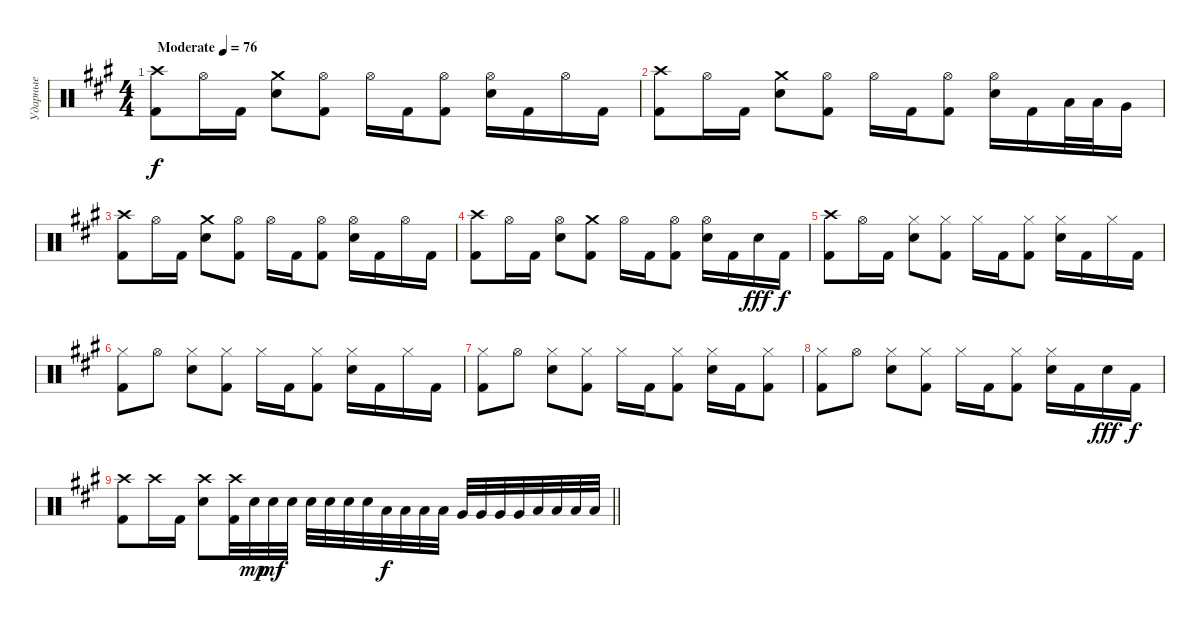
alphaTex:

\track ("Ударные" "Ударные") {instrument percussion}
\staff {score}
\articulation defaults
\ts (4 4)
\tempo (76 "Moderate")
\tempo 86
\tempo (76 "Moderate")
\clef neutral
\ks f#minor
("Crash high (hit)" "Kick (hit) 2").8{dy f} "Hi-Hat (open)".16 "Kick (hit) 2".16 ("Crash medium (hit)" "Snare (hit) 2").8 ("Hi-Hat (open)" "Kick (hit) 2").8 "Hi-Hat (open)".16 "Kick (hit) 2".16 ("Hi-Hat (open)" "Kick (hit) 2").8 ("Hi-Hat (open)" "Snare (hit) 2").16 "Kick (hit) 2".16 "Hi-Hat (open)".16 "Kick (hit) 2".16 |
("Crash high (hit)" "Kick (hit) 2").8 "Hi-Hat (open)".16 "Kick (hit) 2".16 ("Crash medium (hit)" "Snare (hit) 2").8 ("Hi-Hat (open)" "Kick (hit) 2").8 "Hi-Hat (open)".16 "Kick (hit) 2".16 ("Hi-Hat (open)" "Kick (hit) 2").8 ("Hi-Hat (open)" "Snare (hit) 2").16 "Kick (hit) 2".16 "Low Tom (hit)".32 "Low Tom (hit)".32 "Very Low Tom (hit)".16 |
("Crash high (hit)" "Kick (hit) 2").8 "Hi-Hat (open)".16 "Kick (hit) 2".16 ("Crash medium (hit)" "Snare (hit) 2").8 ("Hi-Hat (open)" "Kick (hit) 2").8 "Hi-Hat (open)".16 "Kick (hit) 2".16 ("Hi-Hat (open)" "Kick (hit) 2").8 ("Hi-Hat (open)" "Snare (hit) 2").16 "Kick (hit) 2".16 "Hi-Hat (open)".16 "Kick (hit) 2".16 |
("Crash high (hit)" "Kick (hit) 2").8 "Hi-Hat (open)".16 "Kick (hit) 2".16 ("Hi-Hat (open)" "Snare (hit) 2").8 ("Crash medium (hit)" "Kick (hit) 2").8 "Hi-Hat (open)".16 "Kick (hit) 2".16 ("Hi-Hat (open)" "Kick (hit) 2").8 ("Hi-Hat (open)" "Snare (hit) 2").16 "Kick (hit) 2".16 "Snare (hit) 2".16{dy fff} "Kick (hit) 2".16{dy f} |
("Crash high (hit)" "Kick (hit) 2").8 "Hi-Hat (open)".16 "Kick (hit) 2".16 ("Hi-Hat (closed)" "Snare (hit) 2").8 ("Hi-Hat (closed)" "Kick (hit) 2").8 "Hi-Hat (closed)".16 "Kick (hit) 2".16 ("Hi-Hat (closed)" "Kick (hit) 2").8 ("Hi-Hat (closed)" "Snare (hit) 2").16 "Kick (hit) 2".16 "Hi-Hat (closed)".16 "Kick (hit) 2".16 |
("Hi-Hat (closed)" "Kick (hit) 2").8 "Hi-Hat (open)".8 ("Hi-Hat (closed)" "Snare (hit) 2").8 ("Hi-Hat (closed)" "Kick (hit) 2").8 "Hi-Hat (closed)".16 "Kick (hit) 2".16 ("Hi-Hat (closed)" "Kick (hit) 2").8 ("Hi-Hat (closed)" "Snare (hit) 2").16 "Kick (hit) 2".16 "Hi-Hat (closed)".16 "Kick (hit) 2".16 |
("Hi-Hat (closed)" "Kick (hit) 2").8 "Hi-Hat (open)".8 ("Hi-Hat (closed)" "Snare (hit) 2").8 ("Hi-Hat (closed)" "Kick (hit) 2").8 "Hi-Hat (closed)".16 "Kick (hit) 2".16 ("Hi-Hat (closed)" "Kick (hit) 2").8 ("Hi-Hat (closed)" "Snare (hit) 2").16 "Kick (hit) 2".16 ("Hi-Hat (closed)" "Kick (hit) 2").8 |
("Hi-Hat (closed)" "Kick (hit) 2").8 "Hi-Hat (open)".8 ("Hi-Hat (closed)" "Snare (hit) 2").8 ("Hi-Hat (closed)" "Kick (hit) 2").8 "Hi-Hat (closed)".16 "Kick (hit) 2".16 ("Hi-Hat (closed)" "Kick (hit) 2").8 ("Hi-Hat (closed)" "Snare (hit) 2").16 "Kick (hit) 2".16 "Snare (hit) 2".16{dy fff} "Kick (hit) 2".16{dy f} |
\barLineRight lightlight
("Crash high (hit)" "Kick (hit) 2").8 "Crash high (hit)".16 "Kick (hit) 2".16 ("Crash high (hit)" "Snare (hit) 2").8 ("Crash high (hit)" "Kick (hit) 2").32 "Snare (hit) 2".32{dy mp} "Snare (hit) 2".32{dy mf} "Snare (hit) 2".32 "Snare (hit) 2".32 "Snare (hit) 2".32 "Snare (hit) 2".32 "Snare (hit) 2".32 "Low Tom (hit)".32{dy f} "Low Tom (hit)".32 "Low Tom (hit)".32 "Low Tom (hit)".32 "Very Low Tom (hit)".32 "Very Low Tom (hit)".32 "Very Low Tom (hit)".32 "Very Low Tom (hit)".32 "Low Floor Tom (hit)".32 "Low Floor Tom (hit)".32 "Low Floor Tom (hit)".32 "Low Floor Tom (hit)".32
